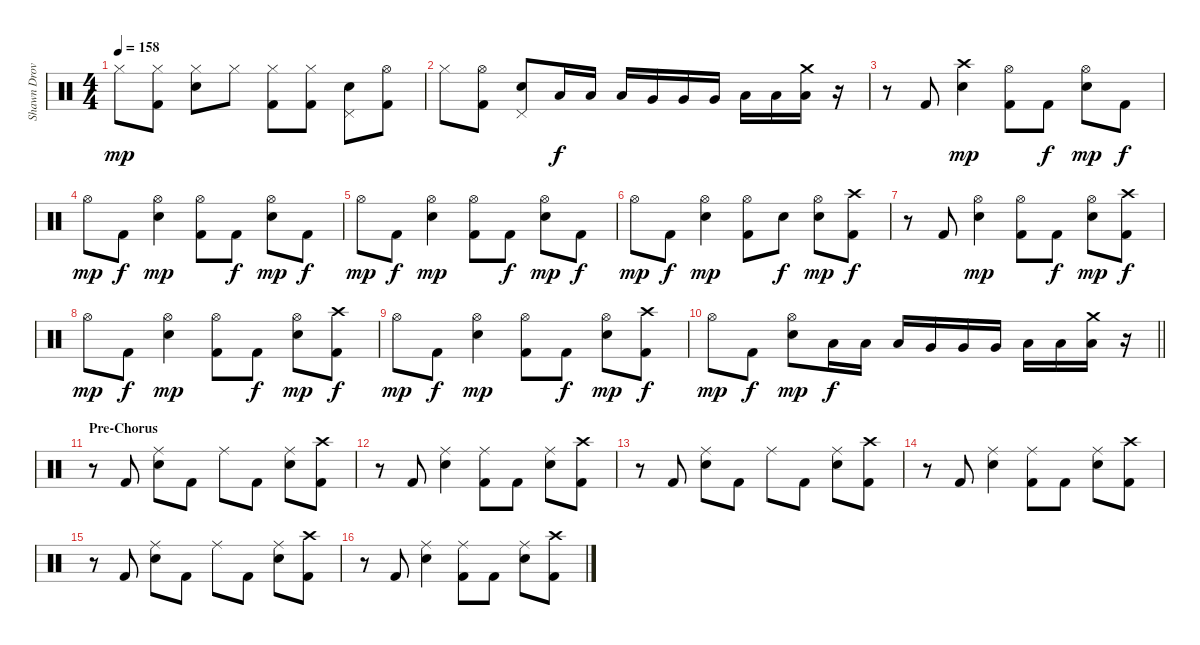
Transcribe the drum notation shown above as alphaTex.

\track ("Shawn Drover" "Shawn Drov") {instrument percussion}
\staff
\articulation defaults
\ts (4 4)
\tempo 158
\clef neutral
\ks c "Hi-Hat (closed)".8{dy mp}
("Hi-Hat (closed)" "Kick (hit) 2").8 ("Hi-Hat (closed)" "Snare (hit) 2").8 "Hi-Hat (closed)".8 ("Hi-Hat (closed)" "Kick (hit) 2").8 ("Hi-Hat (closed)" "Kick (hit) 2").8 ("Pedal Hi-Hat (hit)" "Snare (hit) 2").8 ("Hi-Hat (open)" "Kick (hit) 2").8 |
"Hi-Hat (closed)".8 ("Hi-Hat (open)" "Kick (hit) 2").8 ("Pedal Hi-Hat (hit)" "Snare (hit) 2").8 "Low Tom (hit)".16{dy f} "Low Tom (hit)".16 "Low Tom (hit)".16 "Very Low Tom (hit)".16 "Very Low Tom (hit)".16 "Very Low Tom (hit)".16 "Low Floor Tom (hit)".16 "Low Floor Tom (hit)".16 ("Crash medium (hit)" "Low Floor Tom (hit)").16 r.16 |
r.8 "Kick (hit) 2".8 ("Crash high (hit)" "Snare (hit) 2").4{dy mp} ("Hi-Hat (open)" "Kick (hit) 2").8 "Kick (hit) 2".8{dy f} ("Hi-Hat (open)" "Snare (hit) 2").8{dy mp} "Kick (hit) 2".8{dy f} |
"Hi-Hat (open)".8{dy mp} "Kick (hit) 2".8{dy f} ("Hi-Hat (open)" "Snare (hit) 2").4{dy mp} ("Hi-Hat (open)" "Kick (hit) 2").8 "Kick (hit) 2".8{dy f} ("Hi-Hat (open)" "Snare (hit) 2").8{dy mp} "Kick (hit) 2".8{dy f} |
"Hi-Hat (open)".8{dy mp} "Kick (hit) 2".8{dy f} ("Hi-Hat (open)" "Snare (hit) 2").4{dy mp} ("Hi-Hat (open)" "Kick (hit) 2").8 "Kick (hit) 2".8{dy f} ("Hi-Hat (open)" "Snare (hit) 2").8{dy mp} "Kick (hit) 2".8{dy f} |
"Hi-Hat (open)".8{dy mp} "Kick (hit) 2".8{dy f} ("Hi-Hat (open)" "Snare (hit) 2").4{dy mp} ("Hi-Hat (open)" "Kick (hit) 2").8 "Snare (hit) 2".8{dy f} ("Hi-Hat (open)" "Snare (hit) 2").8{dy mp} ("Crash high (hit)" "Kick (hit) 2").8{dy f} |
r.8 "Kick (hit) 2".8 ("Hi-Hat (open)" "Snare (hit) 2").4{dy mp} ("Hi-Hat (open)" "Kick (hit) 2").8 "Kick (hit) 2".8{dy f} ("Hi-Hat (open)" "Snare (hit) 2").8{dy mp} ("Crash high (hit)" "Kick (hit) 2").8{dy f} |
"Hi-Hat (open)".8{dy mp} "Kick (hit) 2".8{dy f} ("Hi-Hat (open)" "Snare (hit) 2").4{dy mp} ("Hi-Hat (open)" "Kick (hit) 2").8 "Kick (hit) 2".8{dy f} ("Hi-Hat (open)" "Snare (hit) 2").8{dy mp} ("Crash high (hit)" "Kick (hit) 2").8{dy f} |
"Hi-Hat (open)".8{dy mp} "Kick (hit) 2".8{dy f} ("Hi-Hat (open)" "Snare (hit) 2").4{dy mp} ("Hi-Hat (open)" "Kick (hit) 2").8 "Kick (hit) 2".8{dy f} ("Hi-Hat (open)" "Snare (hit) 2").8{dy mp} ("Crash high (hit)" "Kick (hit) 2").8{dy f} |
\barLineRight lightlight "Hi-Hat (open)".8{dy mp} "Kick (hit) 2".8{dy f}
("Hi-Hat (open)" "Snare (hit) 2").8{dy mp} "Low Tom (hit)".16{dy f} "Low Tom (hit)".16 "Low Tom (hit)".16 "Very Low Tom (hit)".16 "Very Low Tom (hit)".16 "Very Low Tom (hit)".16 "Low Floor Tom (hit)".16 "Low Floor Tom (hit)".16 ("Crash medium (hit)" "Low Floor Tom (hit)").16 r.16 |
\section ("" "Pre-Chorus")
r.8 "Kick (hit) 2".8 ("Ride (middle)" "Snare (hit) 2").8 "Kick (hit) 2".8 "Ride (middle)".8 "Kick (hit) 2".8 ("Ride (middle)" "Snare (hit) 2").8 ("Crash high (hit)" "Kick (hit) 2").8 |
r.8 "Kick (hit) 2".8 ("Ride (middle)" "Snare (hit) 2").4 ("Ride (middle)" "Kick (hit) 2").8 "Kick (hit) 2".8 ("Ride (middle)" "Snare (hit) 2").8 ("Crash high (hit)" "Kick (hit) 2").8 |
r.8 "Kick (hit) 2".8 ("Ride (middle)" "Snare (hit) 2").8 "Kick (hit) 2".8 "Ride (middle)".8 "Kick (hit) 2".8 ("Ride (middle)" "Snare (hit) 2").8 ("Crash high (hit)" "Kick (hit) 2").8 |
r.8 "Kick (hit) 2".8 ("Ride (middle)" "Snare (hit) 2").4 ("Ride (middle)" "Kick (hit) 2").8 "Kick (hit) 2".8 ("Ride (middle)" "Snare (hit) 2").8 ("Crash high (hit)" "Kick (hit) 2").8 |
r.8 "Kick (hit) 2".8 ("Ride (middle)" "Snare (hit) 2").8 "Kick (hit) 2".8 "Ride (middle)".8 "Kick (hit) 2".8 ("Ride (middle)" "Snare (hit) 2").8 ("Crash high (hit)" "Kick (hit) 2").8 |
r.8 "Kick (hit) 2".8 ("Ride (middle)" "Snare (hit) 2").4 ("Ride (middle)" "Kick (hit) 2").8 "Kick (hit) 2".8 ("Ride (middle)" "Snare (hit) 2").8 ("Crash high (hit)" "Kick (hit) 2").8
